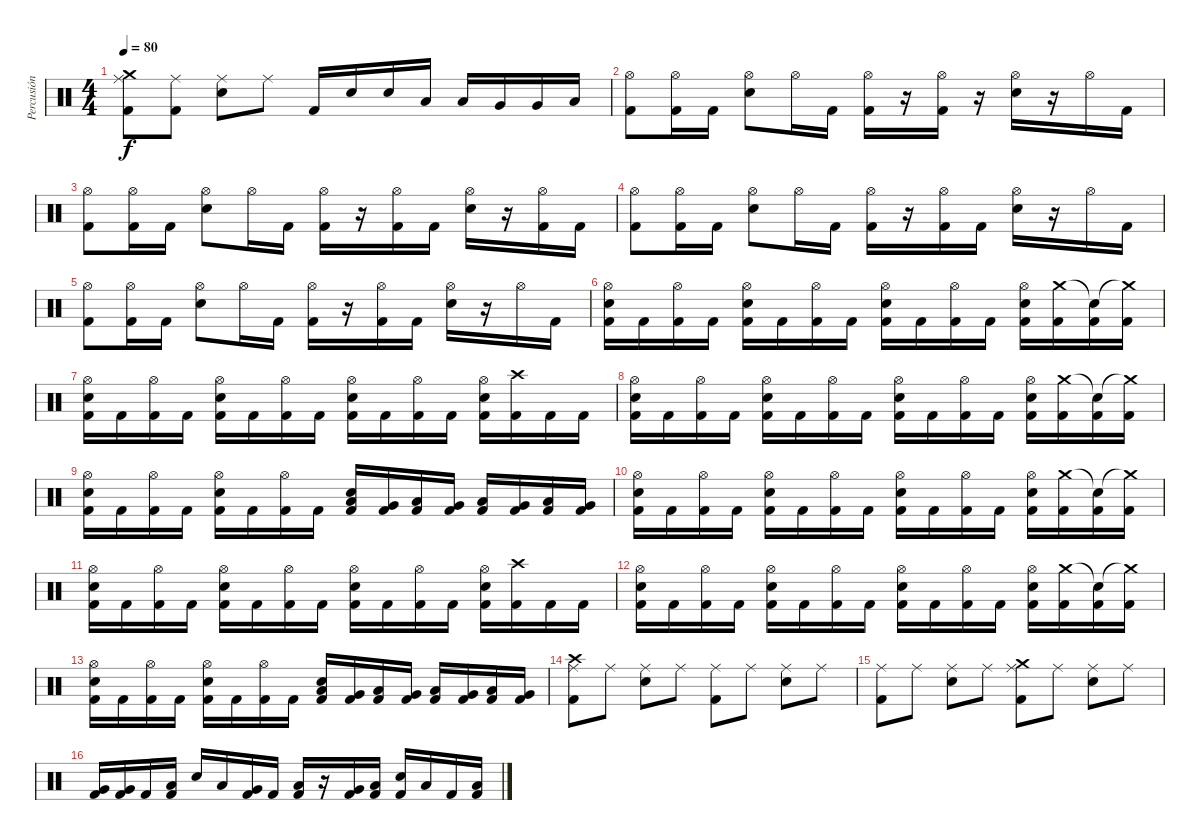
\track ("Percusión" "Percusión") {instrument percussion}
\staff {score}
\articulation defaults
\ts (4 4)
\tempo 80
\clef neutral
\ks c
("Kick (hit) 2" "Crash medium (hit)" "Ride (middle)").8{dy f} ("Kick (hit) 2" "Ride (middle)").8 ("Electric Snare (hit)" "Ride (middle)").8 "Ride (middle)".8 "Kick (hit) 2".16 "Snare (hit) 2".16 "Snare (hit) 2".16 "Low Tom (hit)".16 "Low Tom (hit)".16 "Very Low Tom (hit)".16 "Very Low Tom (hit)".16 "Low Floor Tom (hit)".16 |
("Kick (hit) 2" "Hi-Hat (open)").8 ("Kick (hit) 2" "Hi-Hat (open)").16 "Kick (hit) 2".16 ("Electric Snare (hit)" "Hi-Hat (open)").8 "Hi-Hat (open)".16 "Kick (hit) 2".16 ("Kick (hit) 2" "Hi-Hat (open)").16 r.16 ("Kick (hit) 2" "Hi-Hat (open)").16 r.16 ("Electric Snare (hit)" "Hi-Hat (open)").16 r.16 "Hi-Hat (open)".16 "Kick (hit) 2".16 |
("Kick (hit) 2" "Hi-Hat (open)").8 ("Kick (hit) 2" "Hi-Hat (open)").16 "Kick (hit) 2".16 ("Electric Snare (hit)" "Hi-Hat (open)").8 "Hi-Hat (open)".16 "Kick (hit) 2".16 ("Kick (hit) 2" "Hi-Hat (open)").16 r.16 ("Kick (hit) 2" "Hi-Hat (open)").16 "Kick (hit) 2".16 ("Electric Snare (hit)" "Hi-Hat (open)").16 r.16 ("Kick (hit) 2" "Hi-Hat (open)").16 "Kick (hit) 2".16 |
("Kick (hit) 2" "Hi-Hat (open)").8 ("Kick (hit) 2" "Hi-Hat (open)").16 "Kick (hit) 2".16 ("Electric Snare (hit)" "Hi-Hat (open)").8 "Hi-Hat (open)".16 "Kick (hit) 2".16 ("Kick (hit) 2" "Hi-Hat (open)").16 r.16 ("Kick (hit) 2" "Hi-Hat (open)").16 "Kick (hit) 2".16 ("Electric Snare (hit)" "Hi-Hat (open)").16 r.16 "Hi-Hat (open)".16 "Kick (hit) 2".16 |
("Kick (hit) 2" "Hi-Hat (open)").8 ("Kick (hit) 2" "Hi-Hat (open)").16 "Kick (hit) 2".16 ("Electric Snare (hit)" "Hi-Hat (open)").8 "Hi-Hat (open)".16 "Kick (hit) 2".16 ("Kick (hit) 2" "Hi-Hat (open)").16 r.16 ("Kick (hit) 2" "Hi-Hat (open)").16 "Kick (hit) 2".16 ("Electric Snare (hit)" "Hi-Hat (open)").16 r.16 "Hi-Hat (open)".16 "Kick (hit) 2".16 |
("Kick (hit) 2" "Hi-Hat (open)" "Electric Snare (hit)").16 "Kick (hit) 2".16 ("Kick (hit) 2" "Hi-Hat (open)").16 "Kick (hit) 2".16 ("Kick (hit) 2" "Hi-Hat (open)" "Electric Snare (hit)").16 "Kick (hit) 2".16 ("Kick (hit) 2" "Hi-Hat (open)").16 "Kick (hit) 2".16 ("Kick (hit) 2" "Hi-Hat (open)" "Electric Snare (hit)").16 "Kick (hit) 2".16 ("Kick (hit) 2" "Hi-Hat (open)").16 "Kick (hit) 2".16 ("Kick (hit) 2" "Hi-Hat (open)" "Electric Snare (hit)").16 ("Kick (hit) 2" "Crash medium (hit)").16 ("Kick (hit) 2" "Snare (hit)"{t}).16 ("Kick (hit) 2" "Crash medium (hit)"{t}).16 |
("Kick (hit) 2" "Hi-Hat (open)" "Electric Snare (hit)").16 "Kick (hit) 2".16 ("Kick (hit) 2" "Hi-Hat (open)").16 "Kick (hit) 2".16 ("Kick (hit) 2" "Hi-Hat (open)" "Electric Snare (hit)").16 "Kick (hit) 2".16 ("Kick (hit) 2" "Hi-Hat (open)").16 "Kick (hit) 2".16 ("Kick (hit) 2" "Hi-Hat (open)" "Electric Snare (hit)").16 "Kick (hit) 2".16 ("Kick (hit) 2" "Hi-Hat (open)").16 "Kick (hit) 2".16 ("Kick (hit) 2" "Hi-Hat (open)" "Electric Snare (hit)").16 ("Kick (hit) 2" "Crash high (hit)").16 "Kick (hit) 2".16 "Kick (hit) 2".16 |
("Kick (hit) 2" "Hi-Hat (open)" "Electric Snare (hit)").16 "Kick (hit) 2".16 ("Kick (hit) 2" "Hi-Hat (open)").16 "Kick (hit) 2".16 ("Kick (hit) 2" "Hi-Hat (open)" "Electric Snare (hit)").16 "Kick (hit) 2".16 ("Kick (hit) 2" "Hi-Hat (open)").16 "Kick (hit) 2".16 ("Kick (hit) 2" "Hi-Hat (open)" "Electric Snare (hit)").16 "Kick (hit) 2".16 ("Kick (hit) 2" "Hi-Hat (open)").16 "Kick (hit) 2".16 ("Kick (hit) 2" "Hi-Hat (open)" "Electric Snare (hit)").16 ("Kick (hit) 2" "Crash medium (hit)").16 ("Kick (hit) 2" "Snare (hit)"{t}).16 ("Kick (hit) 2" "Crash medium (hit)"{t}).16 |
("Kick (hit) 2" "Hi-Hat (open)" "Electric Snare (hit)").16 "Kick (hit) 2".16 ("Kick (hit) 2" "Hi-Hat (open)").16 "Kick (hit) 2".16 ("Kick (hit) 2" "Hi-Hat (open)" "Electric Snare (hit)").16 "Kick (hit) 2".16 ("Kick (hit) 2" "Hi-Hat (open)").16 "Kick (hit) 2".16 ("Kick (hit) 2" "Low Floor Tom (hit)" "Electric Snare (hit)").16 ("Kick (hit) 2" "Very Low Tom (hit)").16 ("Kick (hit) 2" "Low Floor Tom (hit)").16 ("Kick (hit) 2" "Very Low Tom (hit)").16 ("Kick (hit) 2" "Low Floor Tom (hit)").16 ("Kick (hit) 2" "Very Low Tom (hit)").16 ("Kick (hit) 2" "Low Floor Tom (hit)").16 ("Kick (hit) 2" "Very Low Tom (hit)").16 |
("Kick (hit) 2" "Hi-Hat (open)" "Electric Snare (hit)").16 "Kick (hit) 2".16 ("Kick (hit) 2" "Hi-Hat (open)").16 "Kick (hit) 2".16 ("Kick (hit) 2" "Hi-Hat (open)" "Electric Snare (hit)").16 "Kick (hit) 2".16 ("Kick (hit) 2" "Hi-Hat (open)").16 "Kick (hit) 2".16 ("Kick (hit) 2" "Hi-Hat (open)" "Electric Snare (hit)").16 "Kick (hit) 2".16 ("Kick (hit) 2" "Hi-Hat (open)").16 "Kick (hit) 2".16 ("Kick (hit) 2" "Hi-Hat (open)" "Electric Snare (hit)").16 ("Kick (hit) 2" "Crash medium (hit)").16 ("Kick (hit) 2" "Snare (hit)"{t}).16 ("Kick (hit) 2" "Crash medium (hit)"{t}).16 |
("Kick (hit) 2" "Hi-Hat (open)" "Electric Snare (hit)").16 "Kick (hit) 2".16 ("Kick (hit) 2" "Hi-Hat (open)").16 "Kick (hit) 2".16 ("Kick (hit) 2" "Hi-Hat (open)" "Electric Snare (hit)").16 "Kick (hit) 2".16 ("Kick (hit) 2" "Hi-Hat (open)").16 "Kick (hit) 2".16 ("Kick (hit) 2" "Hi-Hat (open)" "Electric Snare (hit)").16 "Kick (hit) 2".16 ("Kick (hit) 2" "Hi-Hat (open)").16 "Kick (hit) 2".16 ("Kick (hit) 2" "Hi-Hat (open)" "Electric Snare (hit)").16 ("Kick (hit) 2" "Crash high (hit)").16 "Kick (hit) 2".16 "Kick (hit) 2".16 |
("Kick (hit) 2" "Hi-Hat (open)" "Electric Snare (hit)").16 "Kick (hit) 2".16 ("Kick (hit) 2" "Hi-Hat (open)").16 "Kick (hit) 2".16 ("Kick (hit) 2" "Hi-Hat (open)" "Electric Snare (hit)").16 "Kick (hit) 2".16 ("Kick (hit) 2" "Hi-Hat (open)").16 "Kick (hit) 2".16 ("Kick (hit) 2" "Hi-Hat (open)" "Electric Snare (hit)").16 "Kick (hit) 2".16 ("Kick (hit) 2" "Hi-Hat (open)").16 "Kick (hit) 2".16 ("Kick (hit) 2" "Hi-Hat (open)" "Electric Snare (hit)").16 ("Kick (hit) 2" "Crash medium (hit)").16 ("Kick (hit) 2" "Snare (hit)"{t}).16 ("Kick (hit) 2" "Crash medium (hit)"{t}).16 |
("Kick (hit) 2" "Hi-Hat (open)" "Electric Snare (hit)").16 "Kick (hit) 2".16 ("Kick (hit) 2" "Hi-Hat (open)").16 "Kick (hit) 2".16 ("Kick (hit) 2" "Hi-Hat (open)" "Electric Snare (hit)").16 "Kick (hit) 2".16 ("Kick (hit) 2" "Hi-Hat (open)").16 "Kick (hit) 2".16 ("Kick (hit) 2" "Low Floor Tom (hit)" "Electric Snare (hit)").16 ("Kick (hit) 2" "Very Low Tom (hit)").16 ("Kick (hit) 2" "Low Floor Tom (hit)").16 ("Kick (hit) 2" "Very Low Tom (hit)").16 ("Kick (hit) 2" "Low Floor Tom (hit)").16 ("Kick (hit) 2" "Very Low Tom (hit)").16 ("Kick (hit) 2" "Low Floor Tom (hit)").16 ("Kick (hit) 2" "Very Low Tom (hit)").16 |
("Kick (hit) 2" "Crash high (hit)" "Ride (middle)").8 "Ride (middle)".8 ("Electric Snare (hit)" "Ride (middle)").8 "Ride (middle)".8 ("Kick (hit) 2" "Ride (middle)").8 "Ride (middle)".8 ("Electric Snare (hit)" "Ride (middle)").8 "Ride (middle)".8 |
("Kick (hit) 2" "Ride (middle)").8 "Ride (middle)".8 ("Electric Snare (hit)" "Ride (middle)").8 "Ride (middle)".8 ("Kick (hit) 2" "Crash medium (hit)" "Ride (middle)").8 "Ride (middle)".8 ("Electric Snare (hit)" "Ride (middle)").8 "Ride (middle)".8 |
("Kick (hit) 2" "Very Low Tom (hit)").16 ("Kick (hit) 2" "Very Low Tom (hit)").16 "Kick (hit) 2".16 ("Kick (hit) 2" "Low Floor Tom (hit)").16 "Electric Snare (hit)".16 "Low Floor Tom (hit)".16 ("Kick (hit) 2" "Very Low Tom (hit)").16 "Kick (hit) 2".16 ("Kick (hit) 2" "Low Floor Tom (hit)").16 r.16 ("Kick (hit) 2" "Very Low Tom (hit)").16 ("Kick (hit) 2" "Low Floor Tom (hit)").16 ("Kick (hit) 2" "Electric Snare (hit)").16 "Low Floor Tom (hit)".16 "Kick (hit) 2".16 ("Kick (hit) 2" "Low Floor Tom (hit)").16
